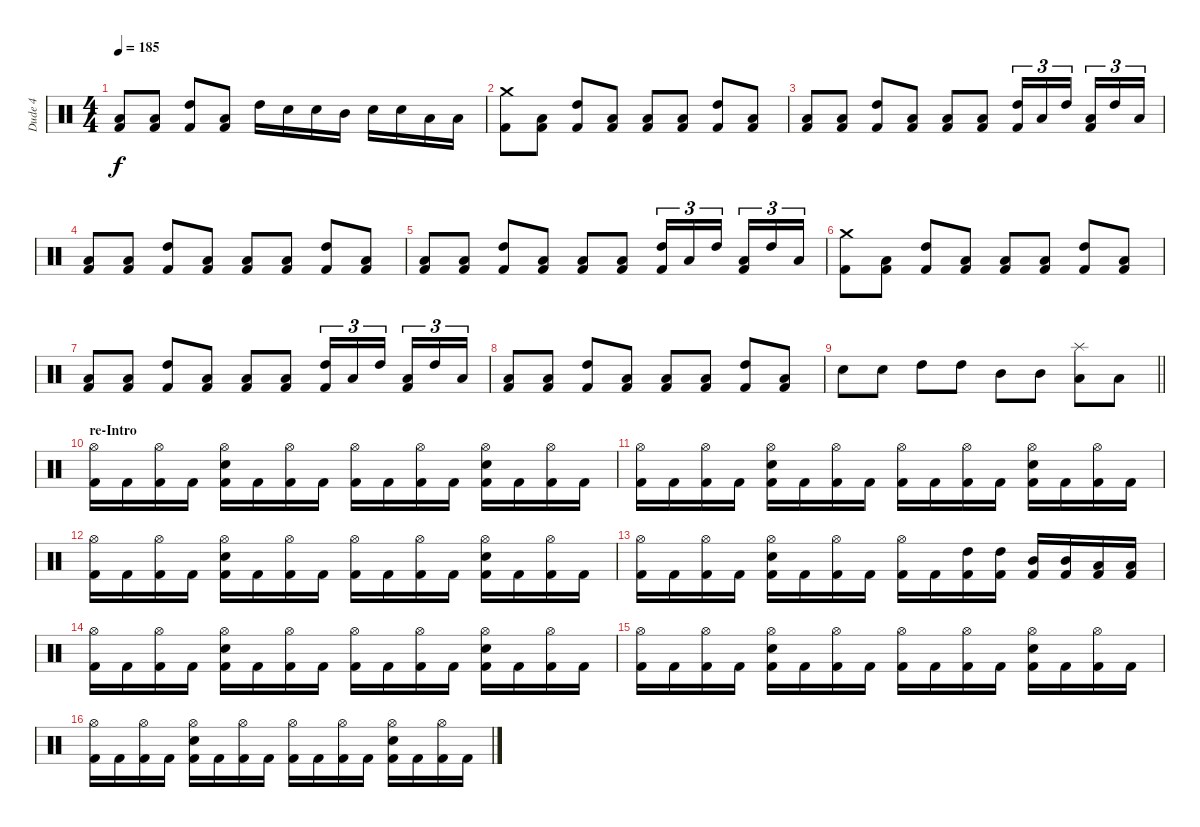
\track ("Dude 4" "Dude 4") {instrument percussion}
\staff {score}
\articulation defaults
\ts (4 4)
\tempo 185
\clef neutral
\ks c
("Low Tom (hit)" "Kick (hit) 2").8{dy f} ("Low Tom (hit)" "Kick (hit) 2").8 ("High Tom (hit)" "Kick (hit) 2").8 ("Low Tom (hit)" "Kick (hit) 2").8 "High Tom (hit)".16 "Snare (hit) 2".16 "Snare (hit) 2".16 "Mid Tom (hit)".16 "Snare (hit) 2".16 "Snare (hit) 2".16 "Low Tom (hit)".16 "Low Tom (hit)".16 |
("Crash medium (hit)" "Kick (hit) 2").8 ("Low Tom (hit)" "Kick (hit) 2").8 ("High Tom (hit)" "Kick (hit) 2").8 ("Low Tom (hit)" "Kick (hit) 2").8 ("Low Tom (hit)" "Kick (hit) 2").8 ("Low Tom (hit)" "Kick (hit) 2").8 ("High Tom (hit)" "Kick (hit) 2").8 ("Low Tom (hit)" "Kick (hit) 2").8 |
("Low Tom (hit)" "Kick (hit) 2").8 ("Low Tom (hit)" "Kick (hit) 2").8 ("High Tom (hit)" "Kick (hit) 2").8 ("Low Tom (hit)" "Kick (hit) 2").8 ("Low Tom (hit)" "Kick (hit) 2").8 ("Low Tom (hit)" "Kick (hit) 2").8 ("High Tom (hit)" "Kick (hit) 2").16{tu (3 2)} "Low Tom (hit)".16{tu (3 2)} "High Tom (hit)".16{tu (3 2) beam splitsecondary} ("Low Tom (hit)" "Kick (hit) 2").16{tu (3 2)} "High Tom (hit)".16{tu (3 2)} "Low Tom (hit)".16{tu (3 2)} |
("Low Tom (hit)" "Kick (hit) 2").8 ("Low Tom (hit)" "Kick (hit) 2").8 ("High Tom (hit)" "Kick (hit) 2").8 ("Low Tom (hit)" "Kick (hit) 2").8 ("Low Tom (hit)" "Kick (hit) 2").8 ("Low Tom (hit)" "Kick (hit) 2").8 ("High Tom (hit)" "Kick (hit) 2").8 ("Low Tom (hit)" "Kick (hit) 2").8 |
("Low Tom (hit)" "Kick (hit) 2").8 ("Low Tom (hit)" "Kick (hit) 2").8 ("High Tom (hit)" "Kick (hit) 2").8 ("Low Tom (hit)" "Kick (hit) 2").8 ("Low Tom (hit)" "Kick (hit) 2").8 ("Low Tom (hit)" "Kick (hit) 2").8 ("High Tom (hit)" "Kick (hit) 2").16{tu (3 2)} "Low Tom (hit)".16{tu (3 2)} "High Tom (hit)".16{tu (3 2) beam splitsecondary} ("Low Tom (hit)" "Kick (hit) 2").16{tu (3 2)} "High Tom (hit)".16{tu (3 2)} "Low Tom (hit)".16{tu (3 2)} |
("Crash medium (hit)" "Kick (hit) 2").8 ("Low Tom (hit)" "Kick (hit) 2").8 ("High Tom (hit)" "Kick (hit) 2").8 ("Low Tom (hit)" "Kick (hit) 2").8 ("Low Tom (hit)" "Kick (hit) 2").8 ("Low Tom (hit)" "Kick (hit) 2").8 ("High Tom (hit)" "Kick (hit) 2").8 ("Low Tom (hit)" "Kick (hit) 2").8 |
("Low Tom (hit)" "Kick (hit) 2").8 ("Low Tom (hit)" "Kick (hit) 2").8 ("High Tom (hit)" "Kick (hit) 2").8 ("Low Tom (hit)" "Kick (hit) 2").8 ("Low Tom (hit)" "Kick (hit) 2").8 ("Low Tom (hit)" "Kick (hit) 2").8 ("High Tom (hit)" "Kick (hit) 2").16{tu (3 2)} "Low Tom (hit)".16{tu (3 2)} "High Tom (hit)".16{tu (3 2) beam splitsecondary} ("Low Tom (hit)" "Kick (hit) 2").16{tu (3 2)} "High Tom (hit)".16{tu (3 2)} "Low Tom (hit)".16{tu (3 2)} |
("Low Tom (hit)" "Kick (hit) 2").8 ("Low Tom (hit)" "Kick (hit) 2").8 ("High Tom (hit)" "Kick (hit) 2").8 ("Low Tom (hit)" "Kick (hit) 2").8 ("Low Tom (hit)" "Kick (hit) 2").8 ("Low Tom (hit)" "Kick (hit) 2").8 ("High Tom (hit)" "Kick (hit) 2").8 ("Low Tom (hit)" "Kick (hit) 2").8 |
\barLineRight lightlight "Electric Snare (hit)".8 "Electric Snare (hit)".8 "High Tom (hit)".8 "High Tom (hit)".8 "Mid Tom (hit)".8 "Mid Tom (hit)".8
("Splash (hit)" "Low Tom (hit)").8 "Low Tom (hit)".8 |
\section ("" "re-Intro")
("Hi-Hat (open)" "Kick (hit) 2").16 "Kick (hit) 2".16 ("Hi-Hat (open)" "Kick (hit) 2").16 "Kick (hit) 2".16 ("Hi-Hat (open)" "Electric Snare (hit)" "Kick (hit) 2").16 "Kick (hit) 2".16 ("Hi-Hat (open)" "Kick (hit) 2").16 "Kick (hit) 2".16 ("Hi-Hat (open)" "Kick (hit) 2").16 "Kick (hit) 2".16 ("Hi-Hat (open)" "Kick (hit) 2").16 "Kick (hit) 2".16 ("Hi-Hat (open)" "Electric Snare (hit)" "Kick (hit) 2").16 "Kick (hit) 2".16 ("Hi-Hat (open)" "Kick (hit) 2").16 "Kick (hit) 2".16 |
("Hi-Hat (open)" "Kick (hit) 2").16 "Kick (hit) 2".16 ("Hi-Hat (open)" "Kick (hit) 2").16 "Kick (hit) 2".16 ("Hi-Hat (open)" "Electric Snare (hit)" "Kick (hit) 2").16 "Kick (hit) 2".16 ("Hi-Hat (open)" "Kick (hit) 2").16 "Kick (hit) 2".16 ("Hi-Hat (open)" "Kick (hit) 2").16 "Kick (hit) 2".16 ("Hi-Hat (open)" "Kick (hit) 2").16 "Kick (hit) 2".16 ("Hi-Hat (open)" "Electric Snare (hit)" "Kick (hit) 2").16 "Kick (hit) 2".16 ("Hi-Hat (open)" "Kick (hit) 2").16 "Kick (hit) 2".16 |
("Hi-Hat (open)" "Kick (hit) 2").16 "Kick (hit) 2".16 ("Hi-Hat (open)" "Kick (hit) 2").16 "Kick (hit) 2".16 ("Hi-Hat (open)" "Electric Snare (hit)" "Kick (hit) 2").16 "Kick (hit) 2".16 ("Hi-Hat (open)" "Kick (hit) 2").16 "Kick (hit) 2".16 ("Hi-Hat (open)" "Kick (hit) 2").16 "Kick (hit) 2".16 ("Hi-Hat (open)" "Kick (hit) 2").16 "Kick (hit) 2".16 ("Hi-Hat (open)" "Electric Snare (hit)" "Kick (hit) 2").16 "Kick (hit) 2".16 ("Hi-Hat (open)" "Kick (hit) 2").16 "Kick (hit) 2".16 |
("Hi-Hat (open)" "Kick (hit) 2").16 "Kick (hit) 2".16 ("Hi-Hat (open)" "Kick (hit) 2").16 "Kick (hit) 2".16 ("Hi-Hat (open)" "Electric Snare (hit)" "Kick (hit) 2").16 "Kick (hit) 2".16 ("Hi-Hat (open)" "Kick (hit) 2").16 "Kick (hit) 2".16 ("Hi-Hat (open)" "Kick (hit) 2").16 "Kick (hit) 2".16 ("High Tom (hit)" "Kick (hit) 2").16 ("High Tom (hit)" "Kick (hit) 2").16 ("Mid Tom (hit)" "Kick (hit) 2").16 ("Mid Tom (hit)" "Kick (hit) 2").16 ("Low Tom (hit)" "Kick (hit) 2").16 ("Low Tom (hit)" "Kick (hit) 2").16 |
("Hi-Hat (open)" "Kick (hit) 2").16 "Kick (hit) 2".16 ("Hi-Hat (open)" "Kick (hit) 2").16 "Kick (hit) 2".16 ("Hi-Hat (open)" "Electric Snare (hit)" "Kick (hit) 2").16 "Kick (hit) 2".16 ("Hi-Hat (open)" "Kick (hit) 2").16 "Kick (hit) 2".16 ("Hi-Hat (open)" "Kick (hit) 2").16 "Kick (hit) 2".16 ("Hi-Hat (open)" "Kick (hit) 2").16 "Kick (hit) 2".16 ("Hi-Hat (open)" "Electric Snare (hit)" "Kick (hit) 2").16 "Kick (hit) 2".16 ("Hi-Hat (open)" "Kick (hit) 2").16 "Kick (hit) 2".16 |
("Hi-Hat (open)" "Kick (hit) 2").16 "Kick (hit) 2".16 ("Hi-Hat (open)" "Kick (hit) 2").16 "Kick (hit) 2".16 ("Hi-Hat (open)" "Electric Snare (hit)" "Kick (hit) 2").16 "Kick (hit) 2".16 ("Hi-Hat (open)" "Kick (hit) 2").16 "Kick (hit) 2".16 ("Hi-Hat (open)" "Kick (hit) 2").16 "Kick (hit) 2".16 ("Hi-Hat (open)" "Kick (hit) 2").16 "Kick (hit) 2".16 ("Hi-Hat (open)" "Electric Snare (hit)" "Kick (hit) 2").16 "Kick (hit) 2".16 ("Hi-Hat (open)" "Kick (hit) 2").16 "Kick (hit) 2".16 |
("Hi-Hat (open)" "Kick (hit) 2").16 "Kick (hit) 2".16 ("Hi-Hat (open)" "Kick (hit) 2").16 "Kick (hit) 2".16 ("Hi-Hat (open)" "Electric Snare (hit)" "Kick (hit) 2").16 "Kick (hit) 2".16 ("Hi-Hat (open)" "Kick (hit) 2").16 "Kick (hit) 2".16 ("Hi-Hat (open)" "Kick (hit) 2").16 "Kick (hit) 2".16 ("Hi-Hat (open)" "Kick (hit) 2").16 "Kick (hit) 2".16 ("Hi-Hat (open)" "Electric Snare (hit)" "Kick (hit) 2").16 "Kick (hit) 2".16 ("Hi-Hat (open)" "Kick (hit) 2").16 "Kick (hit) 2".16
